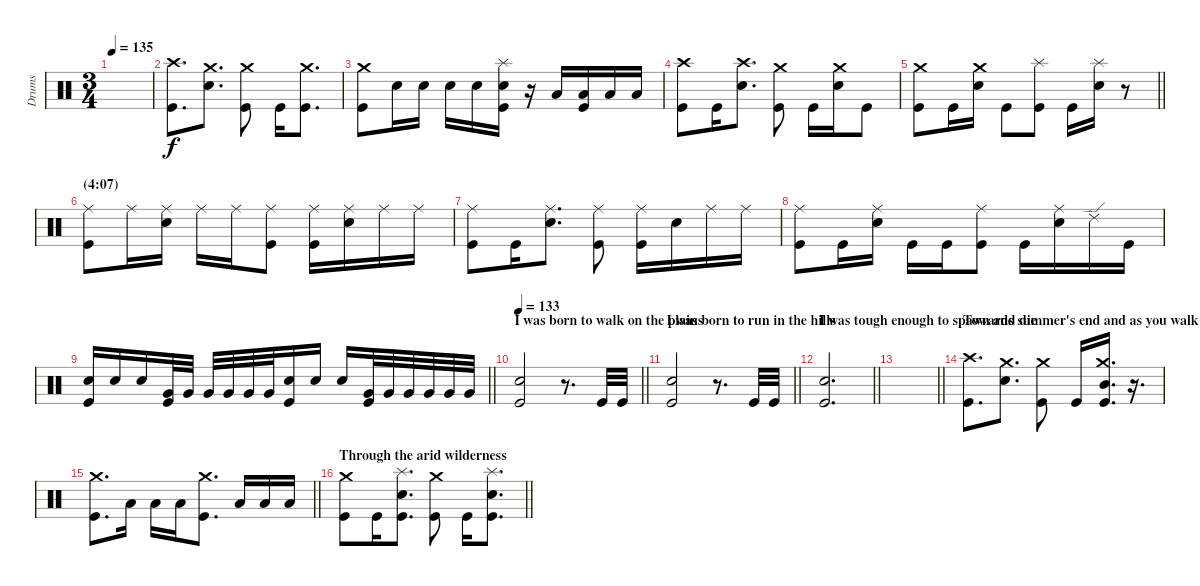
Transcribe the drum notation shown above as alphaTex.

\track ("Drums" "Drums") {instrument percussion}
\staff {score}
\articulation defaults
\ts (3 4)
\tempo 135
\clef neutral
\ks c
|
("Crash high (hit)" "Kick (hit)").8{d} ("Crash medium (hit)" "Snare (hit) 2").8{d} ("Crash medium (hit)" "Kick (hit)").8 "Kick (hit)".16 ("Crash medium (hit)" "Kick (hit)").8{d} |
("Crash medium (hit)" "Kick (hit)").8 "Snare (hit) 2".16 "Snare (hit) 2".16 "Snare (hit) 2".16 "Snare (hit) 2".16 ("Splash (hit)" "Snare (hit) 2" "Kick (hit)").16 r.16 "Low Floor Tom (hit)".16 ("Low Floor Tom (hit)" "Kick (hit)").16 "Low Floor Tom (hit)".16 "Low Floor Tom (hit)".16 |
("Crash high (hit)" "Kick (hit)").8 "Kick (hit)".16 ("Crash high (hit)" "Snare (hit) 2").8{d} ("Crash medium (hit)" "Kick (hit)").8 "Kick (hit)".16 ("Crash medium (hit)" "Snare (hit) 2").16 "Kick (hit)".8 |
\barLineRight lightlight
("Crash medium (hit)" "Kick (hit)").8 "Kick (hit)".16 ("Crash medium (hit)" "Snare (hit) 2").16 "Kick (hit)".8 ("Splash (hit)" "Kick (hit)").8 "Kick (hit)".16 ("Splash (hit)" "Snare (hit) 2").16 r.8 |
\section ("" "(4:07)")
("Ride (middle)" "Kick (hit)").8 "Ride (middle)".16 ("Ride (middle)" "Snare (hit) 2").16 "Ride (middle)".16 "Ride (middle)".16 ("Ride (middle)" "Kick (hit)").8 ("Ride (middle)" "Kick (hit)").16 ("Ride (middle)" "Snare (hit) 2").16 "Ride (middle)".16 "Ride (middle)".16 |
("Ride (middle)" "Kick (hit)").8 "Kick (hit)".16 ("Ride (middle)" "Snare (hit) 2").8{d} ("Ride (middle)" "Kick (hit)").8 ("Ride (middle)" "Kick (hit)").16 "Snare (hit) 2".16 "Ride (middle)".16 "Ride (middle)".16 |
("Ride (middle)" "Kick (hit)").8 "Kick (hit)".16 ("Ride (middle)" "Snare (hit) 2").16 "Kick (hit)".16 "Kick (hit)".16 ("Ride (middle)" "Kick (hit)").8 "Kick (hit)".16 ("Ride (middle)" "Snare (hit) 2").16 "Ride (edge) 2".16 "Kick (hit)".16 |
\barLineRight lightlight
("Snare (hit) 2" "Kick (hit)").16 "Snare (hit) 2".16 "Snare (hit) 2".16 ("Very Low Tom (hit)" "Kick (hit)").32 "Very Low Tom (hit)".32 "Very Low Tom (hit)".32 "Very Low Tom (hit)".32 "Very Low Tom (hit)".32 "Very Low Tom (hit)".32 ("Snare (hit) 2" "Kick (hit)").16 "Snare (hit) 2".16 "Snare (hit) 2".16 ("Very Low Tom (hit)" "Kick (hit)").32 "Very Low Tom (hit)".32 "Very Low Tom (hit)".32 "Very Low Tom (hit)".32 "Very Low Tom (hit)".32 "Very Low Tom (hit)".32 |
\section ("" "I was born to walk on the plains")
\tempo 133
\barLineRight lightlight
("Snare (hit) 2" "Kick (hit)").2 r.8{d} "Kick (hit)".32 "Kick (hit)".32 |
\section ("" "I was born to run in the hills")
\barLineRight lightlight
("Snare (hit) 2" "Kick (hit)").2 r.8{d} "Kick (hit)".32 "Kick (hit)".32 |
\section ("" "I was tough enough to spawn and die ")
\barLineRight lightlight
("Snare (hit) 2" "Kick (hit)").2{d} |
\barLineRight lightlight
|
\section ("" "Towards summer's end and as you walk ")
("Crash high (hit)" "Kick (hit)").8{d} ("Crash medium (hit)" "Snare (hit) 2").8{d} ("Crash medium (hit)" "Kick (hit)").8 "Kick (hit)".16 ("Crash medium (hit)" "Mid Tom (hit)" "Kick (hit)").16{d} r.16{d} |
\barLineRight lightlight
("Crash medium (hit)" "Kick (hit)").8{d} "Low Floor Tom (hit)".16 "Low Floor Tom (hit)".16 "Low Floor Tom (hit)".16 ("Crash medium (hit)" "Kick (hit)").8{d} "Low Floor Tom (hit)".16 "Low Floor Tom (hit)".16 "Low Floor Tom (hit)".16 |
\section ("" "Through the arid wilderness ")
\barLineRight lightlight
("Crash medium (hit)" "Kick (hit)").8 "Kick (hit)".16 ("Splash (hit)" "Snare (hit) 2" "Kick (hit)").8{d} ("Crash medium (hit)" "Kick (hit)").8 "Kick (hit)".16 ("Splash (hit)" "Snare (hit) 2" "Kick (hit)").8{d}
